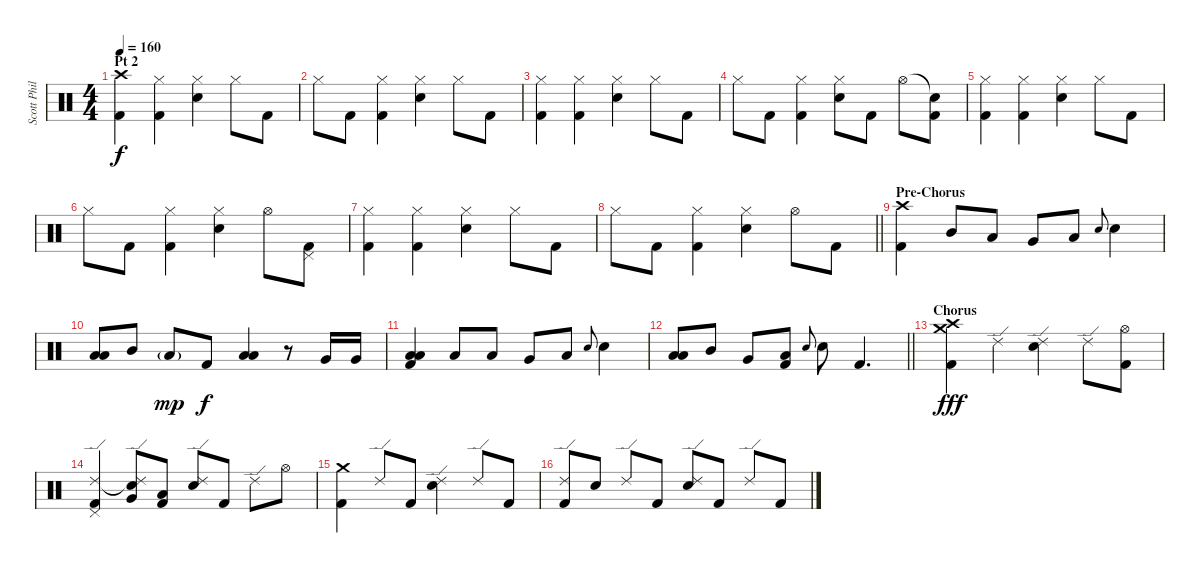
\track ("Scott Phillips [Drums]" "Scott Phil") {instrument percussion}
\staff {score}
\articulation defaults
\ts (4 4)
\section ("" "Pt 2")
\tempo 160
\clef neutral
\ks c
("Crash high (hit)" "Kick (hit) 2").4{dy f} ("Hi-Hat (closed)" "Kick (hit) 2").4 ("Hi-Hat (closed)" "Electric Snare (hit)").4 "Hi-Hat (closed)".8 "Kick (hit) 2".8 |
"Hi-Hat (closed)".8 "Kick (hit) 2".8 ("Hi-Hat (closed)" "Kick (hit) 2").4 ("Hi-Hat (closed)" "Electric Snare (hit)").4 "Hi-Hat (closed)".8 "Kick (hit) 2".8 |
("Hi-Hat (closed)" "Kick (hit) 2").4 ("Hi-Hat (closed)" "Kick (hit) 2").4 ("Hi-Hat (closed)" "Electric Snare (hit)").4 "Hi-Hat (closed)".8 "Kick (hit) 2".8 |
"Hi-Hat (closed)".8 "Kick (hit) 2".8 ("Hi-Hat (closed)" "Kick (hit) 2").4 ("Hi-Hat (closed)" "Electric Snare (hit)").8 "Kick (hit) 2".8 "Hi-Hat (open)".8 ("Snare (hit)"{t} "Kick (hit) 2").8 |
("Hi-Hat (closed)" "Kick (hit) 2").4 ("Hi-Hat (closed)" "Kick (hit) 2").4 ("Hi-Hat (closed)" "Electric Snare (hit)").4 "Hi-Hat (closed)".8 "Kick (hit) 2".8 |
"Hi-Hat (closed)".8 "Kick (hit) 2".8 ("Hi-Hat (closed)" "Kick (hit) 2").4 ("Hi-Hat (closed)" "Electric Snare (hit)").4 "Hi-Hat (open)".8 ("Pedal Hi-Hat (hit)" "Kick (hit) 2").8 |
("Hi-Hat (closed)" "Kick (hit) 2").4 ("Hi-Hat (closed)" "Kick (hit) 2").4 ("Hi-Hat (closed)" "Electric Snare (hit)").4 "Hi-Hat (closed)".8 "Kick (hit) 2".8 |
\barLineRight lightlight "Hi-Hat (closed)".8 "Kick (hit) 2".8
("Hi-Hat (closed)" "Kick (hit) 2").4 ("Hi-Hat (closed)" "Electric Snare (hit)").4 "Hi-Hat (open)".8 "Kick (hit) 2".8 |
\section ("" "Pre-Chorus")
("Crash high (hit)" "Kick (hit) 2").4 "Mid Tom (hit)".8 "Low Tom (hit)".8 "Very Low Tom (hit)".8 "Low Floor Tom (hit)".8 "Electric Snare (hit)".8{gr onbeat} "Electric Snare (hit)".4 |
("Low Floor Tom (hit)" "Low Tom (hit)").8 "Mid Tom (hit)".8 "Low Tom (hit)"{g}.8{dy mp} "Kick (hit) 2".8{dy f} ("Low Floor Tom (hit)" "Low Tom (hit)").4 r.8 "Very Low Tom (hit)".16 "Very Low Tom (hit)".16 |
("Low Floor Tom (hit)" "Low Tom (hit)" "Kick (hit) 2").4 "Low Tom (hit)".8 "Low Tom (hit)".8 "Very Low Tom (hit)".8 "Low Floor Tom (hit)".8 "Electric Snare (hit)".8{gr onbeat} "Electric Snare (hit)".4 |
\barLineRight lightlight
("Low Floor Tom (hit)" "Low Tom (hit)").8 "Mid Tom (hit)".8 "Very Low Tom (hit)".8 ("Low Floor Tom (hit)" "Kick (hit) 2").8 "Electric Snare (hit)".8{gr onbeat} "Electric Snare (hit)".8 "Kick (hit) 2".4{d} |
\section ("" "Chorus")
("Crash high (hit)" "Crash medium (hit)" "Kick (hit) 2").4{dy fff} "Ride (edge) 2".4 ("Ride (edge) 2" "Electric Snare (hit)").4 "Ride (edge) 2".8 ("Hi-Hat (open)" "Kick (hit) 2").8 |
("Ride (edge) 2" "Pedal Hi-Hat (hit)" "Kick (hit) 2").4 ("Ride (edge) 2"{t} "Very Low Tom (hit)" "Electric Snare (hit)").8 ("Low Floor Tom (hit)" "Kick (hit) 2").8 ("Ride (edge) 2" "Electric Snare (hit)").8 "Kick (hit) 2".8 "Ride (edge) 2".8 "Hi-Hat (open)".8 |
("Crash medium (hit)" "Kick (hit) 2").4 "Ride (edge) 2".8 "Kick (hit) 2".8 ("Ride (edge) 2" "Electric Snare (hit)").4 "Ride (edge) 2".8 "Kick (hit) 2".8 |
("Ride (edge) 2" "Kick (hit) 2").8 "Electric Snare (hit)".8 "Ride (edge) 2".8 "Kick (hit) 2".8 ("Ride (edge) 2" "Electric Snare (hit)").8 "Kick (hit) 2".8 "Ride (edge) 2".8 "Kick (hit) 2".8
